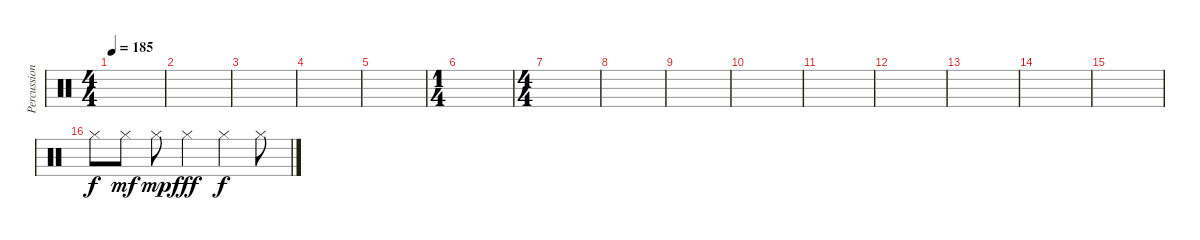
\track ("Percussion" "Percussion") {solo instrument percussion}
\staff {score}
\articulation defaults
\ts (4 4)
\tempo 185
\clef neutral
\ks c
|
|
|
|
|
\ts (1 4)
|
\ts (4 4)
|
|
|
|
|
|
|
|
|
"Hi-Hat (closed)".8 "Hi-Hat (closed)".8{dy mf} "Hi-Hat (closed)".8{dy mp} "Hi-Hat (closed)".4{dy fff} "Hi-Hat (closed)".4{dy f} "Hi-Hat (closed)".8
